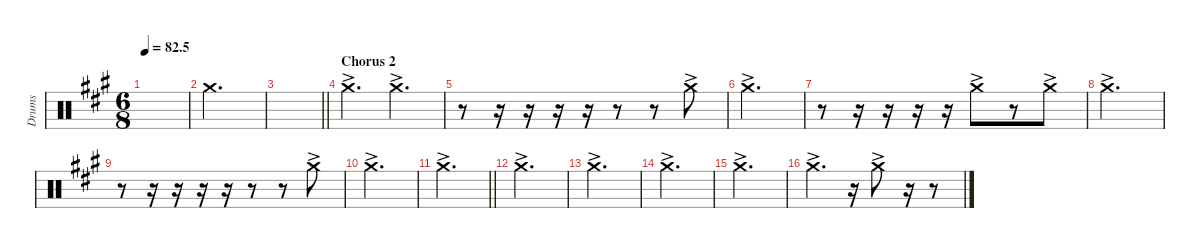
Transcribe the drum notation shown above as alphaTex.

\defaultSystemsLayout 4
\hideDynamics
\bracketExtendMode nobrackets
\otherSystemsTrackNameOrientation horizontal
\track ("Right crash" "Drums") {instrument percussion}
\staff {score}
\articulation defaults
\ts (6 8)
\tempo
82.5
\accidentals auto
\clef neutral
\ottava regular
\simile none
\scale
0.333333
\ks a
|
\scale
0.333333 "Crash medium (hit)"{acc forcenatural}.2{d} |
\scale
0.333333
\barLineRight lightlight
|
\section ("" "Chorus 2")
\scale
0.333333 "Crash medium (hit)"{ac acc forcenatural}.4{d} "Crash medium (hit)"{ac acc forcenatural}.4{d} |
\scale
0.333333 r.8 r.16 r.16 r.16 r.16 r.8 r.8 "Crash medium (hit)"{ac acc forcenatural}.8 |
\scale
0.333333 "Crash medium (hit)"{ac acc forcenatural}.2{d} |
\scale
0.333333 r.8 r.16 r.16 r.16 r.16 "Crash medium (hit)"{ac acc forcenatural}.8 r.8 "Crash medium (hit)"{ac acc forcenatural}.8 |
\scale
0.333333 "Crash medium (hit)"{ac acc forcenatural}.2{d} |
\scale
0.333333 r.8 r.16 r.16 r.16 r.16 r.8 r.8 "Crash medium (hit)"{ac acc forcenatural}.8 |
\scale
0.333333 "Crash medium (hit)"{ac acc forcenatural}.2{d} |
\scale
0.333333
\barLineRight lightlight "Crash medium (hit)"{ac acc forcenatural}.2{d}
|
\scale
0.333333 "Crash medium (hit)"{ac acc forcenatural}.2{d} |
\scale
0.333333 "Crash medium (hit)"{ac acc forcenatural}.2{d} |
\scale
0.333333 "Crash medium (hit)"{ac acc forcenatural}.2{d} |
\scale
0.333333 "Crash medium (hit)"{ac acc forcenatural}.2{d} |
\scale
0.333333 "Crash medium (hit)"{ac acc forcenatural}.4{d} r.16 "Crash medium (hit)"{ac acc forcenatural}.8 r.16 r.8
